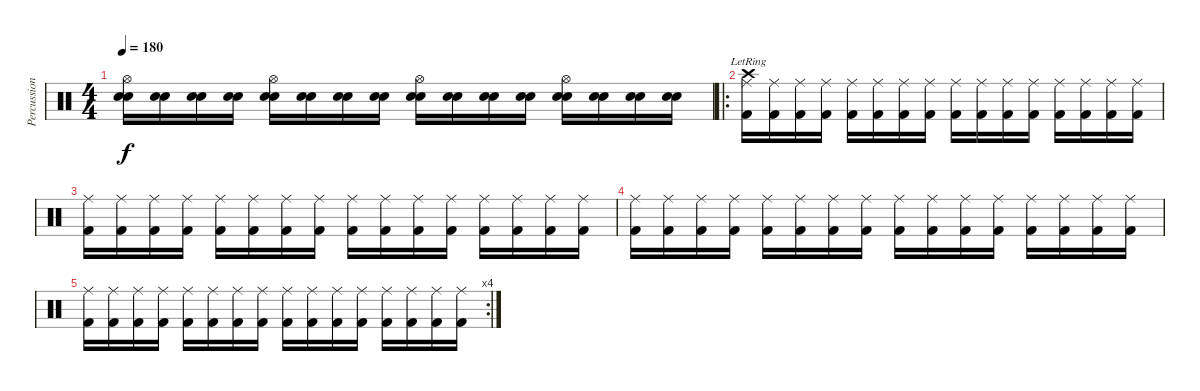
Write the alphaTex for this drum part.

\track ("Percussions" "Percussion") {instrument percussion}
\staff {score}
\articulation defaults
\ts (4 4)
\tempo 180
\clef neutral
\ks c
("Snare (hit) 2" "Snare (hit) 2" "Hi-Hat (open)").16{dy f} ("Snare (hit) 2" "Snare (hit) 2").16 ("Snare (hit) 2" "Snare (hit) 2").16 ("Snare (hit) 2" "Snare (hit) 2").16 ("Snare (hit) 2" "Snare (hit) 2" "Hi-Hat (open)").16 ("Snare (hit) 2" "Snare (hit) 2").16 ("Snare (hit) 2" "Snare (hit) 2").16 ("Snare (hit) 2" "Snare (hit) 2").16 ("Electric Snare (hit)" "Electric Snare (hit)" "Hi-Hat (open)").16 ("Electric Snare (hit)" "Electric Snare (hit)").16 ("Electric Snare (hit)" "Electric Snare (hit)").16 ("Electric Snare (hit)" "Electric Snare (hit)").16 ("Electric Snare (hit)" "Electric Snare (hit)" "Hi-Hat (open)").16 ("Electric Snare (hit)" "Electric Snare (hit)").16 ("Electric Snare (hit)" "Electric Snare (hit)").16 ("Electric Snare (hit)" "Electric Snare (hit)").16 |
\ro
("Kick (hit) 2" "Ride (middle)" "Crash high (hit)"{lr}).16 ("Kick (hit) 2" "Ride (middle)").16 ("Kick (hit) 2" "Ride (middle)").16 ("Kick (hit) 2" "Ride (middle)").16 ("Kick (hit) 2" "Ride (middle)").16 ("Kick (hit) 2" "Ride (middle)").16 ("Kick (hit) 2" "Ride (middle)").16 ("Kick (hit) 2" "Ride (middle)").16 ("Kick (hit) 2" "Ride (middle)").16 ("Kick (hit) 2" "Ride (middle)").16 ("Kick (hit) 2" "Ride (middle)").16 ("Kick (hit) 2" "Ride (middle)").16 ("Kick (hit) 2" "Ride (middle)").16 ("Kick (hit) 2" "Ride (middle)").16 ("Kick (hit) 2" "Ride (middle)").16 ("Kick (hit) 2" "Ride (middle)").16 |
("Kick (hit) 2" "Ride (middle)").16 ("Kick (hit) 2" "Ride (middle)").16 ("Kick (hit) 2" "Ride (middle)").16 ("Kick (hit) 2" "Ride (middle)").16 ("Kick (hit) 2" "Ride (middle)").16 ("Kick (hit) 2" "Ride (middle)").16 ("Kick (hit) 2" "Ride (middle)").16 ("Kick (hit) 2" "Ride (middle)").16 ("Kick (hit) 2" "Ride (middle)").16 ("Kick (hit) 2" "Ride (middle)").16 ("Kick (hit) 2" "Ride (middle)").16 ("Kick (hit) 2" "Ride (middle)").16 ("Kick (hit) 2" "Ride (middle)").16 ("Kick (hit) 2" "Ride (middle)").16 ("Kick (hit) 2" "Ride (middle)").16 ("Kick (hit) 2" "Ride (middle)").16 |
("Kick (hit) 2" "Ride (middle)").16 ("Kick (hit) 2" "Ride (middle)").16 ("Kick (hit) 2" "Ride (middle)").16 ("Kick (hit) 2" "Ride (middle)").16 ("Kick (hit) 2" "Ride (middle)").16 ("Kick (hit) 2" "Ride (middle)").16 ("Kick (hit) 2" "Ride (middle)").16 ("Kick (hit) 2" "Ride (middle)").16 ("Kick (hit) 2" "Ride (middle)").16 ("Kick (hit) 2" "Ride (middle)").16 ("Kick (hit) 2" "Ride (middle)").16 ("Kick (hit) 2" "Ride (middle)").16 ("Kick (hit) 2" "Ride (middle)").16 ("Kick (hit) 2" "Ride (middle)").16 ("Kick (hit) 2" "Ride (middle)").16 ("Kick (hit) 2" "Ride (middle)").16 |
\rc 4
("Kick (hit) 2" "Ride (middle)").16 ("Kick (hit) 2" "Ride (middle)").16 ("Kick (hit) 2" "Ride (middle)").16 ("Kick (hit) 2" "Ride (middle)").16 ("Kick (hit) 2" "Ride (middle)").16 ("Kick (hit) 2" "Ride (middle)").16 ("Kick (hit) 2" "Ride (middle)").16 ("Kick (hit) 2" "Ride (middle)").16 ("Kick (hit) 2" "Ride (middle)").16 ("Kick (hit) 2" "Ride (middle)").16 ("Kick (hit) 2" "Ride (middle)").16 ("Kick (hit) 2" "Ride (middle)").16 ("Kick (hit) 2" "Ride (middle)").16 ("Kick (hit) 2" "Ride (middle)").16 ("Kick (hit) 2" "Ride (middle)").16 ("Kick (hit) 2" "Ride (middle)").16
